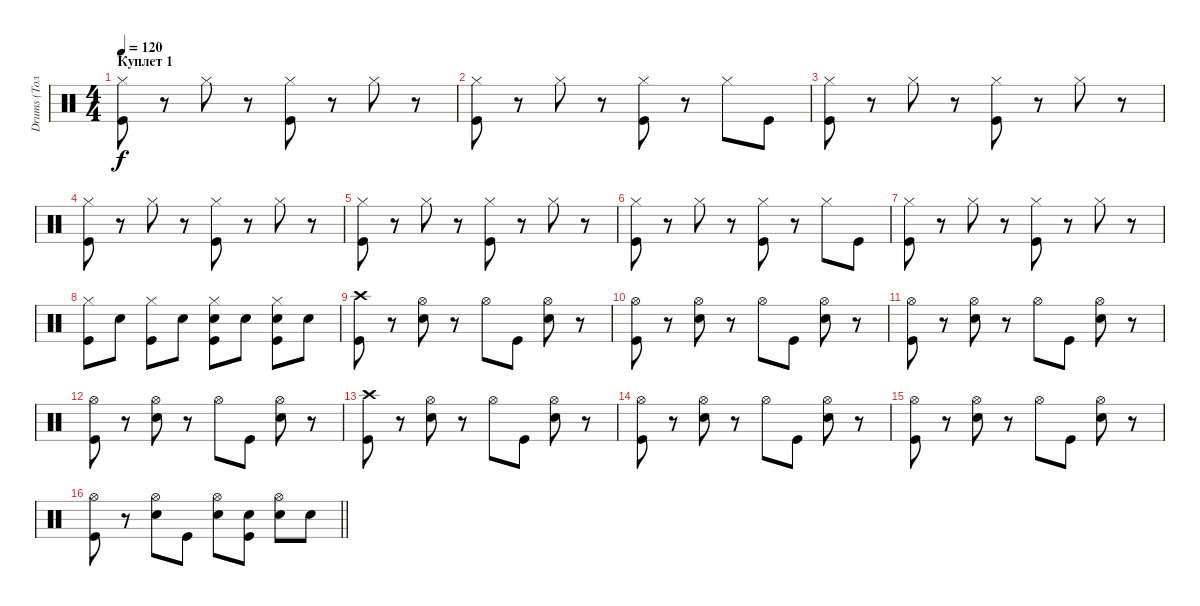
\track ("Drums (Толян)" "Drums (Тол") {instrument percussion}
\staff {score}
\articulation defaults
\ts (4 4)
\section ("" "Куплет 1")
\tempo 120
\clef neutral
\ks c
("Hi-Hat (closed)" "Kick (hit)").8{dy f} r.8 "Hi-Hat (closed)".8 r.8 ("Hi-Hat (closed)" "Kick (hit)").8 r.8 "Hi-Hat (closed)".8 r.8 |
("Hi-Hat (closed)" "Kick (hit)").8 r.8 "Hi-Hat (closed)".8 r.8 ("Hi-Hat (closed)" "Kick (hit)").8 r.8 "Hi-Hat (closed)".8 "Kick (hit)".8 |
("Hi-Hat (closed)" "Kick (hit)").8 r.8 "Hi-Hat (closed)".8 r.8 ("Hi-Hat (closed)" "Kick (hit)").8 r.8 "Hi-Hat (closed)".8 r.8 |
("Hi-Hat (closed)" "Kick (hit)").8 r.8 "Hi-Hat (closed)".8 r.8 ("Hi-Hat (closed)" "Kick (hit)").8 r.8 "Hi-Hat (closed)".8 r.8 |
("Hi-Hat (closed)" "Kick (hit)").8 r.8 "Hi-Hat (closed)".8 r.8 ("Hi-Hat (closed)" "Kick (hit)").8 r.8 "Hi-Hat (closed)".8 r.8 |
("Hi-Hat (closed)" "Kick (hit)").8 r.8 "Hi-Hat (closed)".8 r.8 ("Hi-Hat (closed)" "Kick (hit)").8 r.8 "Hi-Hat (closed)".8 "Kick (hit)".8 |
("Hi-Hat (closed)" "Kick (hit)").8 r.8 "Hi-Hat (closed)".8 r.8 ("Hi-Hat (closed)" "Kick (hit)").8 r.8 "Hi-Hat (closed)".8 r.8 |
("Hi-Hat (closed)" "Kick (hit)").8 "Electric Snare (hit)".8 ("Hi-Hat (closed)" "Kick (hit)").8 "Electric Snare (hit)".8 ("Hi-Hat (closed)" "Electric Snare (hit)" "Kick (hit)").8 "Electric Snare (hit)".8 ("Hi-Hat (closed)" "Electric Snare (hit)" "Kick (hit)").8 "Electric Snare (hit)".8 |
("Crash high (hit)" "Kick (hit)").8 r.8 ("Hi-Hat (open)" "Electric Snare (hit)").8 r.8 "Hi-Hat (open)".8 "Kick (hit)".8 ("Hi-Hat (open)" "Electric Snare (hit)").8 r.8 |
("Hi-Hat (open)" "Kick (hit)").8 r.8 ("Hi-Hat (open)" "Electric Snare (hit)").8 r.8 "Hi-Hat (open)".8 "Kick (hit)".8 ("Hi-Hat (open)" "Electric Snare (hit)").8 r.8 |
("Hi-Hat (open)" "Kick (hit)").8 r.8 ("Hi-Hat (open)" "Electric Snare (hit)").8 r.8 "Hi-Hat (open)".8 "Kick (hit)".8 ("Hi-Hat (open)" "Electric Snare (hit)").8 r.8 |
("Hi-Hat (open)" "Kick (hit)").8 r.8 ("Hi-Hat (open)" "Electric Snare (hit)").8 r.8 "Hi-Hat (open)".8 "Kick (hit)".8 ("Hi-Hat (open)" "Electric Snare (hit)").8 r.8 |
("Crash high (hit)" "Kick (hit)").8 r.8 ("Hi-Hat (open)" "Electric Snare (hit)").8 r.8 "Hi-Hat (open)".8 "Kick (hit)".8 ("Hi-Hat (open)" "Electric Snare (hit)").8 r.8 |
("Hi-Hat (open)" "Kick (hit)").8 r.8 ("Hi-Hat (open)" "Electric Snare (hit)").8 r.8 "Hi-Hat (open)".8 "Kick (hit)".8 ("Hi-Hat (open)" "Electric Snare (hit)").8 r.8 |
("Hi-Hat (open)" "Kick (hit)").8 r.8 ("Hi-Hat (open)" "Electric Snare (hit)").8 r.8 "Hi-Hat (open)".8 "Kick (hit)".8 ("Hi-Hat (open)" "Electric Snare (hit)").8 r.8 |
\barLineRight lightlight
("Hi-Hat (open)" "Kick (hit)").8 r.8 ("Hi-Hat (open)" "Electric Snare (hit)").8 "Kick (hit)".8 ("Hi-Hat (open)" "Electric Snare (hit)").8 ("Electric Snare (hit)" "Kick (hit)").8 ("Hi-Hat (open)" "Electric Snare (hit)").8 "Electric Snare (hit)".8
